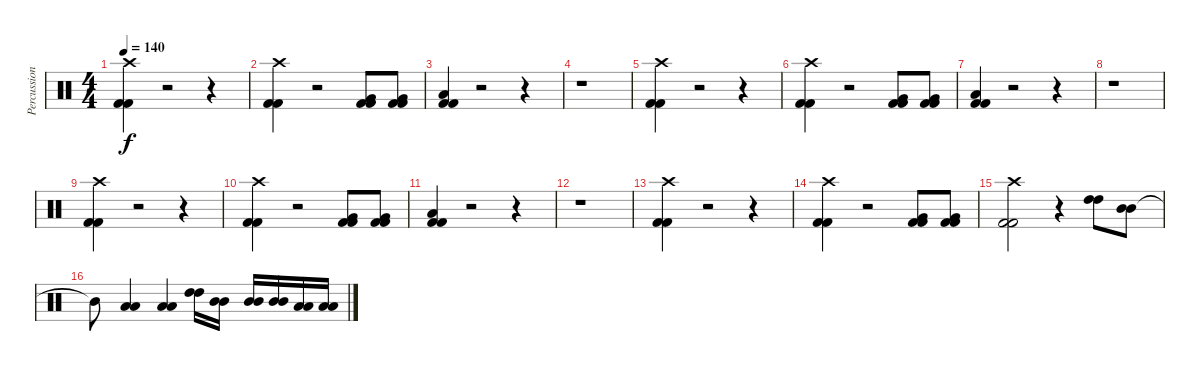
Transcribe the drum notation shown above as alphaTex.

\track ("Percussion" "Percussion") {instrument percussion}
\staff {score}
\articulation defaults
\ts (4 4)
\tempo 140
\clef neutral
\ks c
("Kick (hit) 2" "Kick (hit) 2" "Crash high (hit)").4{dy f} r.2 r.4 |
("Kick (hit) 2" "Kick (hit) 2" "Crash high (hit)").4 r.2 ("Kick (hit) 2" "Kick (hit) 2" "Very Low Tom (hit)").8 ("Kick (hit) 2" "Kick (hit) 2" "Very Low Tom (hit)").8 |
("Kick (hit) 2" "Kick (hit) 2" "Low Floor Tom (hit)").4 r.2 r.4 |
r.1 |
("Kick (hit) 2" "Kick (hit) 2" "Crash high (hit)").4 r.2 r.4 |
("Kick (hit) 2" "Kick (hit) 2" "Crash high (hit)").4 r.2 ("Kick (hit) 2" "Kick (hit) 2" "Very Low Tom (hit)").8 ("Kick (hit) 2" "Kick (hit) 2" "Very Low Tom (hit)").8 |
("Kick (hit) 2" "Kick (hit) 2" "Low Floor Tom (hit)").4 r.2 r.4 |
r.1 |
("Kick (hit) 2" "Kick (hit) 2" "Crash high (hit)").4 r.2 r.4 |
("Kick (hit) 2" "Kick (hit) 2" "Crash high (hit)").4 r.2 ("Kick (hit) 2" "Kick (hit) 2" "Very Low Tom (hit)").8 ("Kick (hit) 2" "Kick (hit) 2" "Very Low Tom (hit)").8 |
("Kick (hit) 2" "Kick (hit) 2" "Low Floor Tom (hit)").4 r.2 r.4 |
r.1 |
("Kick (hit) 2" "Kick (hit) 2" "Crash high (hit)").4 r.2 r.4 |
("Kick (hit) 2" "Kick (hit) 2" "Crash high (hit)").4 r.2 ("Kick (hit) 2" "Kick (hit) 2" "Very Low Tom (hit)").8 ("Kick (hit) 2" "Kick (hit) 2" "Very Low Tom (hit)").8 |
("Kick (hit) 2" "Kick (hit) 2" "Crash high (hit)").2 r.4 ("High Tom (hit)" "High Tom (hit)").8 ("Mid Tom (hit)" "Mid Tom (hit)").8 |
"Mid Tom (hit)"{t}.8 ("Low Tom (hit)" "Low Tom (hit)").4 ("Low Tom (hit)" "Low Tom (hit)").4 ("High Tom (hit)" "High Tom (hit)").16 ("Mid Tom (hit)" "Mid Tom (hit)").16 ("Mid Tom (hit)" "Mid Tom (hit)").16 ("Mid Tom (hit)" "Mid Tom (hit)").16 ("Low Tom (hit)" "Low Tom (hit)").16 ("Low Tom (hit)" "Low Tom (hit)").16
